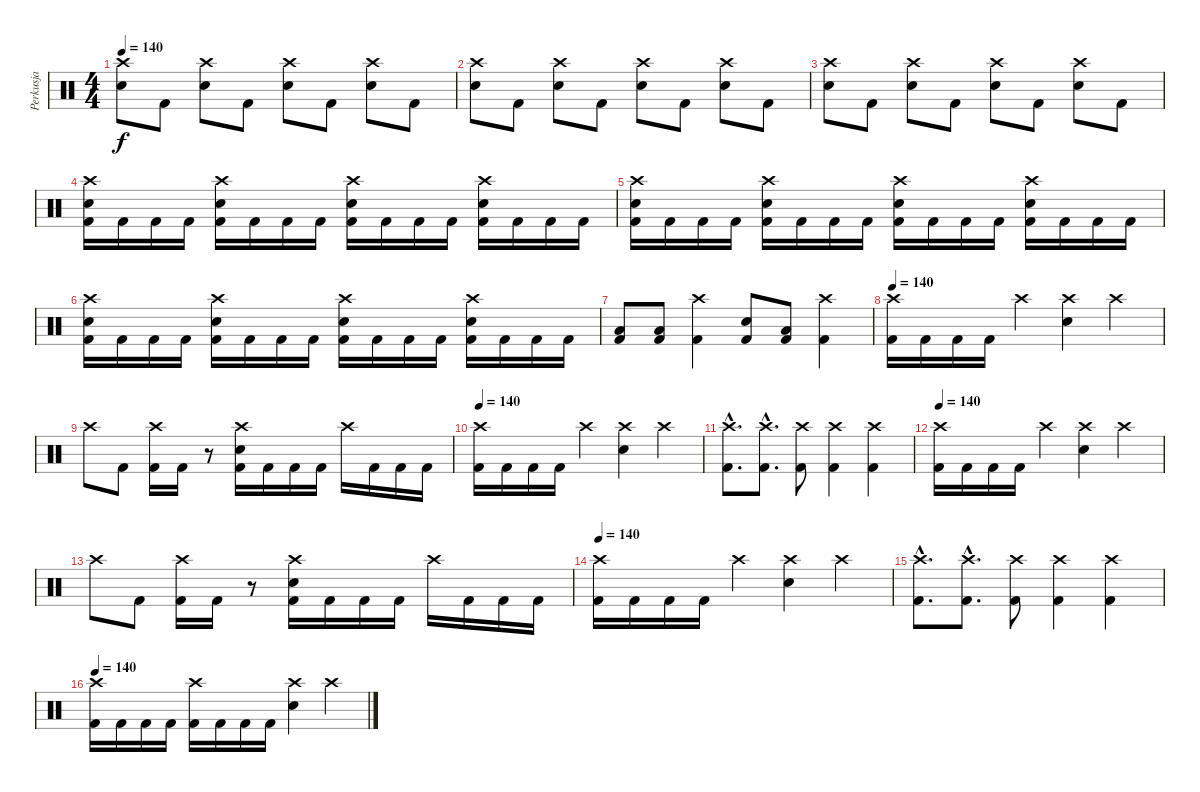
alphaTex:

\track ("Perkusja" "Perkusja") {instrument percussion}
\staff {score}
\articulation defaults
\ts (4 4)
\tempo 140
\clef neutral
\ks c
("Crash high (hit)" "Electric Snare (hit)").8{dy f} "Kick (hit) 2".8 ("Crash high (hit)" "Electric Snare (hit)").8 "Kick (hit) 2".8 ("Crash high (hit)" "Electric Snare (hit)").8 "Kick (hit) 2".8 ("Crash high (hit)" "Electric Snare (hit)").8 "Kick (hit) 2".8 |
("Crash high (hit)" "Electric Snare (hit)").8 "Kick (hit) 2".8 ("Crash high (hit)" "Electric Snare (hit)").8 "Kick (hit) 2".8 ("Crash high (hit)" "Electric Snare (hit)").8 "Kick (hit) 2".8 ("Crash high (hit)" "Electric Snare (hit)").8 "Kick (hit) 2".8 |
("Crash high (hit)" "Electric Snare (hit)").8 "Kick (hit) 2".8 ("Crash high (hit)" "Electric Snare (hit)").8 "Kick (hit) 2".8 ("Crash high (hit)" "Electric Snare (hit)").8 "Kick (hit) 2".8 ("Crash high (hit)" "Electric Snare (hit)").8 "Kick (hit) 2".8 |
("Crash high (hit)" "Electric Snare (hit)" "Kick (hit) 2").16 "Kick (hit) 2".16 "Kick (hit) 2".16 "Kick (hit) 2".16 ("Crash high (hit)" "Electric Snare (hit)" "Kick (hit) 2").16 "Kick (hit) 2".16 "Kick (hit) 2".16 "Kick (hit) 2".16 ("Crash high (hit)" "Electric Snare (hit)" "Kick (hit) 2").16 "Kick (hit) 2".16 "Kick (hit) 2".16 "Kick (hit) 2".16 ("Crash high (hit)" "Electric Snare (hit)" "Kick (hit) 2").16 "Kick (hit) 2".16 "Kick (hit) 2".16 "Kick (hit) 2".16 |
("Crash high (hit)" "Electric Snare (hit)" "Kick (hit) 2").16 "Kick (hit) 2".16 "Kick (hit) 2".16 "Kick (hit) 2".16 ("Crash high (hit)" "Electric Snare (hit)" "Kick (hit) 2").16 "Kick (hit) 2".16 "Kick (hit) 2".16 "Kick (hit) 2".16 ("Crash high (hit)" "Electric Snare (hit)" "Kick (hit) 2").16 "Kick (hit) 2".16 "Kick (hit) 2".16 "Kick (hit) 2".16 ("Crash high (hit)" "Electric Snare (hit)" "Kick (hit) 2").16 "Kick (hit) 2".16 "Kick (hit) 2".16 "Kick (hit) 2".16 |
("Crash high (hit)" "Electric Snare (hit)" "Kick (hit) 2").16 "Kick (hit) 2".16 "Kick (hit) 2".16 "Kick (hit) 2".16 ("Crash high (hit)" "Electric Snare (hit)" "Kick (hit) 2").16 "Kick (hit) 2".16 "Kick (hit) 2".16 "Kick (hit) 2".16 ("Crash high (hit)" "Electric Snare (hit)" "Kick (hit) 2").16 "Kick (hit) 2".16 "Kick (hit) 2".16 "Kick (hit) 2".16 ("Crash high (hit)" "Electric Snare (hit)" "Kick (hit) 2").16 "Kick (hit) 2".16 "Kick (hit) 2".16 "Kick (hit) 2".16 |
("Low Floor Tom (hit)" "Kick (hit) 2").8 ("Low Floor Tom (hit)" "Kick (hit) 2").8 ("Crash high (hit)" "Kick (hit) 2").4 ("Electric Snare (hit)" "Kick (hit) 2").8 ("Low Floor Tom (hit)" "Kick (hit) 2").8 ("Crash high (hit)" "Kick (hit) 2").4 |
\tempo 140
("Crash high (hit)" "Kick (hit) 2").16 "Kick (hit) 2".16 "Kick (hit) 2".16 "Kick (hit) 2".16 "Crash high (hit)".4 ("Crash high (hit)" "Electric Snare (hit)").4 "Crash high (hit)".4 |
"Crash high (hit)".8 "Kick (hit) 2".8 ("Crash high (hit)" "Kick (hit) 2").16 "Kick (hit) 2".16 r.8 ("Crash high (hit)" "Electric Snare (hit)" "Kick (hit) 2").16 "Kick (hit) 2".16 "Kick (hit) 2".16 "Kick (hit) 2".16 "Crash high (hit)".16 "Kick (hit) 2".16 "Kick (hit) 2".16 "Kick (hit) 2".16 |
\tempo 140
("Crash high (hit)" "Kick (hit) 2").16 "Kick (hit) 2".16 "Kick (hit) 2".16 "Kick (hit) 2".16 "Crash high (hit)".4 ("Crash high (hit)" "Electric Snare (hit)").4 "Crash high (hit)".4 |
("Crash high (hit)"{hac} "Kick (hit) 2"{hac}).8{d} ("Crash high (hit)"{hac} "Kick (hit) 2"{hac}).8{d} ("Crash high (hit)" "Kick (hit) 2").8 ("Crash high (hit)" "Kick (hit) 2").4 ("Crash high (hit)" "Kick (hit) 2").4 |
\tempo 140
("Crash high (hit)" "Kick (hit) 2").16 "Kick (hit) 2".16 "Kick (hit) 2".16 "Kick (hit) 2".16 "Crash high (hit)".4 ("Crash high (hit)" "Electric Snare (hit)").4 "Crash high (hit)".4 |
"Crash high (hit)".8 "Kick (hit) 2".8 ("Crash high (hit)" "Kick (hit) 2").16 "Kick (hit) 2".16 r.8 ("Crash high (hit)" "Electric Snare (hit)" "Kick (hit) 2").16 "Kick (hit) 2".16 "Kick (hit) 2".16 "Kick (hit) 2".16 "Crash high (hit)".16 "Kick (hit) 2".16 "Kick (hit) 2".16 "Kick (hit) 2".16 |
\tempo 140
("Crash high (hit)" "Kick (hit) 2").16 "Kick (hit) 2".16 "Kick (hit) 2".16 "Kick (hit) 2".16 "Crash high (hit)".4 ("Crash high (hit)" "Electric Snare (hit)").4 "Crash high (hit)".4 |
("Crash high (hit)"{hac} "Kick (hit) 2"{hac}).8{d} ("Crash high (hit)"{hac} "Kick (hit) 2"{hac}).8{d} ("Crash high (hit)" "Kick (hit) 2").8 ("Crash high (hit)" "Kick (hit) 2").4 ("Crash high (hit)" "Kick (hit) 2").4 |
\tempo 140
("Crash high (hit)" "Kick (hit) 2").16 "Kick (hit) 2".16 "Kick (hit) 2".16 "Kick (hit) 2".16 ("Crash high (hit)" "Kick (hit) 2").16 "Kick (hit) 2".16 "Kick (hit) 2".16 "Kick (hit) 2".16 ("Crash high (hit)" "Electric Snare (hit)").4 "Crash high (hit)".4
